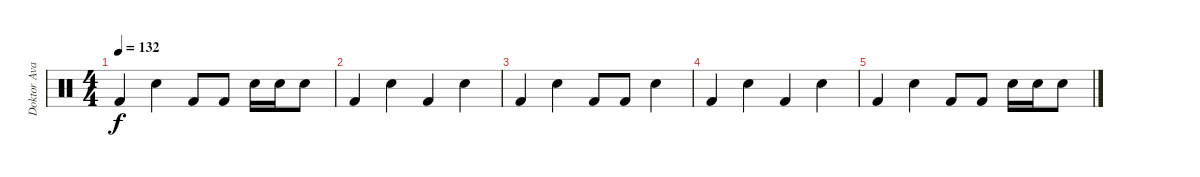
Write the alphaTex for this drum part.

\track ("Doktor Avalanche" "Doktor Ava") {instrument percussion}
\staff {score}
\articulation defaults
\ts (4 4)
\tempo 132
\clef neutral
\ks c "Kick (hit) 2".4{dy f} "Electric Snare (hit)".4 "Kick (hit) 2".8 "Kick (hit) 2".8 "Electric Snare (hit)".16 "Electric Snare (hit)".16 "Electric Snare (hit)".8
|
"Kick (hit) 2".4 "Electric Snare (hit)".4 "Kick (hit) 2".4 "Electric Snare (hit)".4 |
"Kick (hit) 2".4 "Electric Snare (hit)".4 "Kick (hit) 2".8 "Kick (hit) 2".8 "Electric Snare (hit)".4 |
"Kick (hit) 2".4 "Electric Snare (hit)".4 "Kick (hit) 2".4 "Electric Snare (hit)".4 |
"Kick (hit) 2".4 "Electric Snare (hit)".4 "Kick (hit) 2".8 "Kick (hit) 2".8 "Electric Snare (hit)".16 "Electric Snare (hit)".16 "Electric Snare (hit)".8
